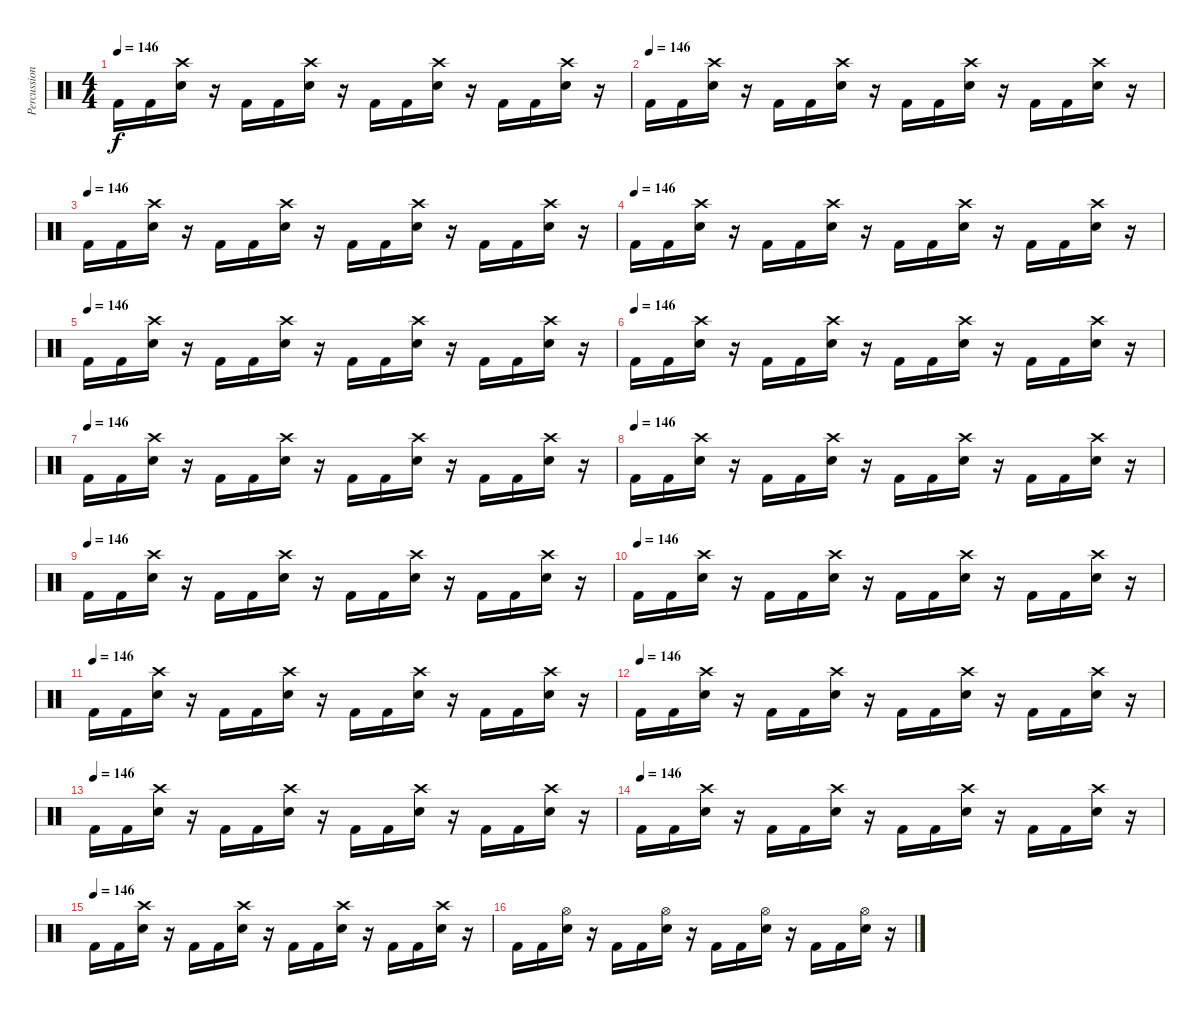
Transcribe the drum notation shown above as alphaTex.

\track ("Percussion(Dr.Spock)" "Percussion") {instrument percussion}
\staff {score}
\articulation defaults
\ts (4 4)
\tempo 146
\clef neutral
\ks c "Kick (hit) 2".16{dy f} "Kick (hit) 2".16
("Snare (hit) 2" "Crash high (hit)").16 r.16 "Kick (hit) 2".16 "Kick (hit) 2".16 ("Snare (hit) 2" "Crash high (hit)").16 r.16 "Kick (hit) 2".16 "Kick (hit) 2".16 ("Snare (hit) 2" "Crash high (hit)").16 r.16 "Kick (hit) 2".16 "Kick (hit) 2".16 ("Snare (hit) 2" "Crash high (hit)").16 r.16 |
\tempo (146)
"Kick (hit) 2".16 "Kick (hit) 2".16 ("Snare (hit) 2" "Crash high (hit)").16 r.16 "Kick (hit) 2".16 "Kick (hit) 2".16 ("Snare (hit) 2" "Crash high (hit)").16 r.16 "Kick (hit) 2".16 "Kick (hit) 2".16 ("Snare (hit) 2" "Crash high (hit)").16 r.16 "Kick (hit) 2".16 "Kick (hit) 2".16 ("Snare (hit) 2" "Crash high (hit)").16 r.16 |
\tempo (146)
"Kick (hit) 2".16 "Kick (hit) 2".16 ("Snare (hit) 2" "Crash high (hit)").16 r.16 "Kick (hit) 2".16 "Kick (hit) 2".16 ("Snare (hit) 2" "Crash high (hit)").16 r.16 "Kick (hit) 2".16 "Kick (hit) 2".16 ("Snare (hit) 2" "Crash high (hit)").16 r.16 "Kick (hit) 2".16 "Kick (hit) 2".16 ("Snare (hit) 2" "Crash high (hit)").16 r.16 |
\tempo (146)
"Kick (hit) 2".16 "Kick (hit) 2".16 ("Snare (hit) 2" "Crash high (hit)").16 r.16 "Kick (hit) 2".16 "Kick (hit) 2".16 ("Snare (hit) 2" "Crash high (hit)").16 r.16 "Kick (hit) 2".16 "Kick (hit) 2".16 ("Snare (hit) 2" "Crash high (hit)").16 r.16 "Kick (hit) 2".16 "Kick (hit) 2".16 ("Snare (hit) 2" "Crash high (hit)").16 r.16 |
\tempo (146)
"Kick (hit) 2".16 "Kick (hit) 2".16 ("Snare (hit) 2" "Crash high (hit)").16 r.16 "Kick (hit) 2".16 "Kick (hit) 2".16 ("Snare (hit) 2" "Crash high (hit)").16 r.16 "Kick (hit) 2".16 "Kick (hit) 2".16 ("Snare (hit) 2" "Crash high (hit)").16 r.16 "Kick (hit) 2".16 "Kick (hit) 2".16 ("Snare (hit) 2" "Crash high (hit)").16 r.16 |
\tempo (146)
"Kick (hit) 2".16 "Kick (hit) 2".16 ("Snare (hit) 2" "Crash high (hit)").16 r.16 "Kick (hit) 2".16 "Kick (hit) 2".16 ("Snare (hit) 2" "Crash high (hit)").16 r.16 "Kick (hit) 2".16 "Kick (hit) 2".16 ("Snare (hit) 2" "Crash high (hit)").16 r.16 "Kick (hit) 2".16 "Kick (hit) 2".16 ("Snare (hit) 2" "Crash high (hit)").16 r.16 |
\tempo (146)
"Kick (hit) 2".16 "Kick (hit) 2".16 ("Snare (hit) 2" "Crash high (hit)").16 r.16 "Kick (hit) 2".16 "Kick (hit) 2".16 ("Snare (hit) 2" "Crash high (hit)").16 r.16 "Kick (hit) 2".16 "Kick (hit) 2".16 ("Snare (hit) 2" "Crash high (hit)").16 r.16 "Kick (hit) 2".16 "Kick (hit) 2".16 ("Snare (hit) 2" "Crash high (hit)").16 r.16 |
\tempo (146)
"Kick (hit) 2".16 "Kick (hit) 2".16 ("Snare (hit) 2" "Crash high (hit)").16 r.16 "Kick (hit) 2".16 "Kick (hit) 2".16 ("Snare (hit) 2" "Crash high (hit)").16 r.16 "Kick (hit) 2".16 "Kick (hit) 2".16 ("Snare (hit) 2" "Crash high (hit)").16 r.16 "Kick (hit) 2".16 "Kick (hit) 2".16 ("Snare (hit) 2" "Crash high (hit)").16 r.16 |
\tempo (146)
"Kick (hit) 2".16 "Kick (hit) 2".16 ("Snare (hit) 2" "Crash high (hit)").16 r.16 "Kick (hit) 2".16 "Kick (hit) 2".16 ("Snare (hit) 2" "Crash high (hit)").16 r.16 "Kick (hit) 2".16 "Kick (hit) 2".16 ("Snare (hit) 2" "Crash high (hit)").16 r.16 "Kick (hit) 2".16 "Kick (hit) 2".16 ("Snare (hit) 2" "Crash high (hit)").16 r.16 |
\tempo (146)
"Kick (hit) 2".16 "Kick (hit) 2".16 ("Snare (hit) 2" "Crash high (hit)").16 r.16 "Kick (hit) 2".16 "Kick (hit) 2".16 ("Snare (hit) 2" "Crash high (hit)").16 r.16 "Kick (hit) 2".16 "Kick (hit) 2".16 ("Snare (hit) 2" "Crash high (hit)").16 r.16 "Kick (hit) 2".16 "Kick (hit) 2".16 ("Snare (hit) 2" "Crash high (hit)").16 r.16 |
\tempo (146)
"Kick (hit) 2".16 "Kick (hit) 2".16 ("Snare (hit) 2" "Crash high (hit)").16 r.16 "Kick (hit) 2".16 "Kick (hit) 2".16 ("Snare (hit) 2" "Crash high (hit)").16 r.16 "Kick (hit) 2".16 "Kick (hit) 2".16 ("Snare (hit) 2" "Crash high (hit)").16 r.16 "Kick (hit) 2".16 "Kick (hit) 2".16 ("Snare (hit) 2" "Crash high (hit)").16 r.16 |
\tempo (146)
"Kick (hit) 2".16 "Kick (hit) 2".16 ("Snare (hit) 2" "Crash high (hit)").16 r.16 "Kick (hit) 2".16 "Kick (hit) 2".16 ("Snare (hit) 2" "Crash high (hit)").16 r.16 "Kick (hit) 2".16 "Kick (hit) 2".16 ("Snare (hit) 2" "Crash high (hit)").16 r.16 "Kick (hit) 2".16 "Kick (hit) 2".16 ("Snare (hit) 2" "Crash high (hit)").16 r.16 |
\tempo (146)
"Kick (hit) 2".16 "Kick (hit) 2".16 ("Snare (hit) 2" "Crash high (hit)").16 r.16 "Kick (hit) 2".16 "Kick (hit) 2".16 ("Snare (hit) 2" "Crash high (hit)").16 r.16 "Kick (hit) 2".16 "Kick (hit) 2".16 ("Snare (hit) 2" "Crash high (hit)").16 r.16 "Kick (hit) 2".16 "Kick (hit) 2".16 ("Snare (hit) 2" "Crash high (hit)").16 r.16 |
\tempo (146)
"Kick (hit) 2".16 "Kick (hit) 2".16 ("Snare (hit) 2" "Crash high (hit)").16 r.16 "Kick (hit) 2".16 "Kick (hit) 2".16 ("Snare (hit) 2" "Crash high (hit)").16 r.16 "Kick (hit) 2".16 "Kick (hit) 2".16 ("Snare (hit) 2" "Crash high (hit)").16 r.16 "Kick (hit) 2".16 "Kick (hit) 2".16 ("Snare (hit) 2" "Crash high (hit)").16 r.16 |
\tempo (146)
"Kick (hit) 2".16 "Kick (hit) 2".16 ("Snare (hit) 2" "Crash high (hit)").16 r.16 "Kick (hit) 2".16 "Kick (hit) 2".16 ("Snare (hit) 2" "Crash high (hit)").16 r.16 "Kick (hit) 2".16 "Kick (hit) 2".16 ("Snare (hit) 2" "Crash high (hit)").16 r.16 "Kick (hit) 2".16 "Kick (hit) 2".16 ("Snare (hit) 2" "Crash high (hit)").16 r.16 |
"Kick (hit) 2".16 "Kick (hit) 2".16 ("Snare (hit) 2" "Hi-Hat (open)").16 r.16 "Kick (hit) 2".16 "Kick (hit) 2".16 ("Snare (hit) 2" "Hi-Hat (open)").16 r.16 "Kick (hit) 2".16 "Kick (hit) 2".16 ("Snare (hit) 2" "Hi-Hat (open)").16 r.16 "Kick (hit) 2".16 "Kick (hit) 2".16 ("Snare (hit) 2" "Hi-Hat (open)").16 r.16
